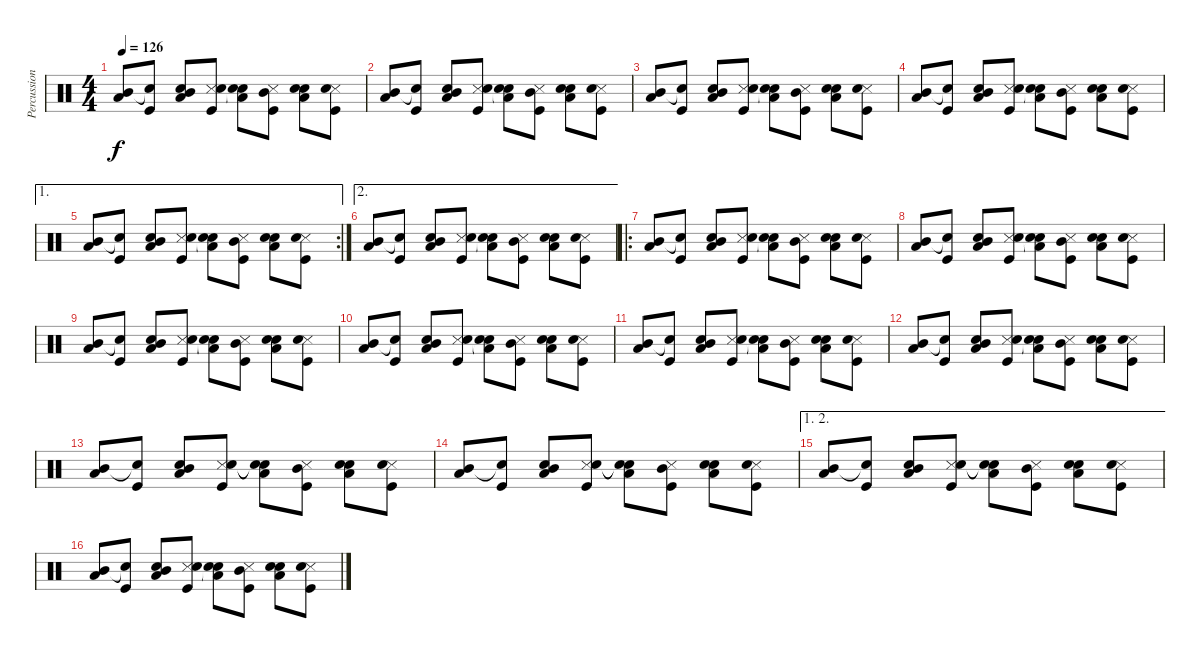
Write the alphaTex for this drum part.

\track ("Percussions" "Percussion") {instrument percussion}
\staff {score}
\articulation defaults
\ts (4 4)
\tempo 126
\clef neutral
\ks c
("Mid Tom (hit)" "Low Floor Tom (hit)").8{dy f} ("Snare (hit)"{t} "Kick (hit)").8 ("Snare (hit) 2" "Mid Tom (hit)" "Low Floor Tom (hit)").8 ("Snare (side stick) 3" "Electric Snare (hit)" "Kick (hit)").8 ("Snare (hit)"{t} "Snare (hit)"{t} "Low Floor Tom (hit)").8 ("Snare (side stick) 3" "Mid Tom (hit)" "Kick (hit)").8 ("Electric Snare (hit)" "Snare (hit) 2" "Low Floor Tom (hit)").8 ("Snare (side stick) 3" "Snare (hit) 2" "Kick (hit)").8 |
("Mid Tom (hit)" "Low Floor Tom (hit)").8 ("Snare (hit)"{t} "Kick (hit)").8 ("Snare (hit) 2" "Mid Tom (hit)" "Low Floor Tom (hit)").8 ("Snare (side stick) 3" "Electric Snare (hit)" "Kick (hit)").8 ("Snare (hit)"{t} "Snare (hit)"{t} "Low Floor Tom (hit)").8 ("Snare (side stick) 3" "Mid Tom (hit)" "Kick (hit)").8 ("Electric Snare (hit)" "Snare (hit) 2" "Low Floor Tom (hit)").8 ("Snare (side stick) 3" "Snare (hit) 2" "Kick (hit)").8 |
("Mid Tom (hit)" "Low Floor Tom (hit)").8 ("Snare (hit)"{t} "Kick (hit)").8 ("Snare (hit) 2" "Mid Tom (hit)" "Low Floor Tom (hit)").8 ("Snare (side stick) 3" "Electric Snare (hit)" "Kick (hit)").8 ("Snare (hit)"{t} "Snare (hit)"{t} "Low Floor Tom (hit)").8 ("Snare (side stick) 3" "Mid Tom (hit)" "Kick (hit)").8 ("Electric Snare (hit)" "Snare (hit) 2" "Low Floor Tom (hit)").8 ("Snare (side stick) 3" "Snare (hit) 2" "Kick (hit)").8 |
("Mid Tom (hit)" "Low Floor Tom (hit)").8 ("Snare (hit)"{t} "Kick (hit)").8 ("Snare (hit) 2" "Mid Tom (hit)" "Low Floor Tom (hit)").8 ("Snare (side stick) 3" "Electric Snare (hit)" "Kick (hit)").8 ("Snare (hit)"{t} "Snare (hit)"{t} "Low Floor Tom (hit)").8 ("Snare (side stick) 3" "Mid Tom (hit)" "Kick (hit)").8 ("Electric Snare (hit)" "Snare (hit) 2" "Low Floor Tom (hit)").8 ("Snare (side stick) 3" "Snare (hit) 2" "Kick (hit)").8 |
\ae 1
\rc 2
("Mid Tom (hit)" "Low Floor Tom (hit)").8 ("Snare (hit)"{t} "Kick (hit)").8 ("Snare (hit) 2" "Mid Tom (hit)" "Low Floor Tom (hit)").8 ("Snare (side stick) 3" "Electric Snare (hit)" "Kick (hit)").8 ("Snare (hit)"{t} "Snare (hit)"{t} "Low Floor Tom (hit)").8 ("Snare (side stick) 3" "Mid Tom (hit)" "Kick (hit)").8 ("Electric Snare (hit)" "Snare (hit) 2" "Low Floor Tom (hit)").8 ("Snare (side stick) 3" "Snare (hit) 2" "Kick (hit)").8 |
\ae 2
("Mid Tom (hit)" "Low Floor Tom (hit)").8 ("Snare (hit)"{t} "Kick (hit)").8 ("Snare (hit) 2" "Mid Tom (hit)" "Low Floor Tom (hit)").8 ("Snare (side stick) 3" "Electric Snare (hit)" "Kick (hit)").8 ("Snare (hit)"{t} "Snare (hit)"{t} "Low Floor Tom (hit)").8 ("Snare (side stick) 3" "Mid Tom (hit)" "Kick (hit)").8 ("Electric Snare (hit)" "Snare (hit) 2" "Low Floor Tom (hit)").8 ("Snare (side stick) 3" "Snare (hit) 2" "Kick (hit)").8 |
\ro
("Mid Tom (hit)" "Low Floor Tom (hit)").8 ("Snare (hit)"{t} "Kick (hit)").8 ("Snare (hit) 2" "Mid Tom (hit)" "Low Floor Tom (hit)").8 ("Snare (side stick) 3" "Electric Snare (hit)" "Kick (hit)").8 ("Snare (hit)"{t} "Snare (hit)"{t} "Low Floor Tom (hit)").8 ("Snare (side stick) 3" "Mid Tom (hit)" "Kick (hit)").8 ("Electric Snare (hit)" "Snare (hit) 2" "Low Floor Tom (hit)").8 ("Snare (side stick) 3" "Snare (hit) 2" "Kick (hit)").8 |
("Mid Tom (hit)" "Low Floor Tom (hit)").8 ("Snare (hit)"{t} "Kick (hit)").8 ("Snare (hit) 2" "Mid Tom (hit)" "Low Floor Tom (hit)").8 ("Snare (side stick) 3" "Electric Snare (hit)" "Kick (hit)").8 ("Snare (hit)"{t} "Snare (hit)"{t} "Low Floor Tom (hit)").8 ("Snare (side stick) 3" "Mid Tom (hit)" "Kick (hit)").8 ("Electric Snare (hit)" "Snare (hit) 2" "Low Floor Tom (hit)").8 ("Snare (side stick) 3" "Snare (hit) 2" "Kick (hit)").8 |
("Mid Tom (hit)" "Low Floor Tom (hit)").8 ("Snare (hit)"{t} "Kick (hit)").8 ("Snare (hit) 2" "Mid Tom (hit)" "Low Floor Tom (hit)").8 ("Snare (side stick) 3" "Electric Snare (hit)" "Kick (hit)").8 ("Snare (hit)"{t} "Snare (hit)"{t} "Low Floor Tom (hit)").8 ("Snare (side stick) 3" "Mid Tom (hit)" "Kick (hit)").8 ("Electric Snare (hit)" "Snare (hit) 2" "Low Floor Tom (hit)").8 ("Snare (side stick) 3" "Snare (hit) 2" "Kick (hit)").8 |
("Mid Tom (hit)" "Low Floor Tom (hit)").8 ("Snare (hit)"{t} "Kick (hit)").8 ("Snare (hit) 2" "Mid Tom (hit)" "Low Floor Tom (hit)").8 ("Snare (side stick) 3" "Electric Snare (hit)" "Kick (hit)").8 ("Snare (hit)"{t} "Snare (hit)"{t} "Low Floor Tom (hit)").8 ("Snare (side stick) 3" "Mid Tom (hit)" "Kick (hit)").8 ("Electric Snare (hit)" "Snare (hit) 2" "Low Floor Tom (hit)").8 ("Snare (side stick) 3" "Snare (hit) 2" "Kick (hit)").8 |
("Mid Tom (hit)" "Low Floor Tom (hit)").8 ("Snare (hit)"{t} "Kick (hit)").8 ("Snare (hit) 2" "Mid Tom (hit)" "Low Floor Tom (hit)").8 ("Snare (side stick) 3" "Electric Snare (hit)" "Kick (hit)").8 ("Snare (hit)"{t} "Snare (hit)"{t} "Low Floor Tom (hit)").8 ("Snare (side stick) 3" "Mid Tom (hit)" "Kick (hit)").8 ("Electric Snare (hit)" "Snare (hit) 2" "Low Floor Tom (hit)").8 ("Snare (side stick) 3" "Snare (hit) 2" "Kick (hit)").8 |
("Mid Tom (hit)" "Low Floor Tom (hit)").8 ("Snare (hit)"{t} "Kick (hit)").8 ("Snare (hit) 2" "Mid Tom (hit)" "Low Floor Tom (hit)").8 ("Snare (side stick) 3" "Electric Snare (hit)" "Kick (hit)").8 ("Snare (hit)"{t} "Snare (hit)"{t} "Low Floor Tom (hit)").8 ("Snare (side stick) 3" "Mid Tom (hit)" "Kick (hit)").8 ("Electric Snare (hit)" "Snare (hit) 2" "Low Floor Tom (hit)").8 ("Snare (side stick) 3" "Snare (hit) 2" "Kick (hit)").8 |
("Mid Tom (hit)" "Low Floor Tom (hit)").8 ("Snare (hit)"{t} "Kick (hit)").8 ("Snare (hit) 2" "Mid Tom (hit)" "Low Floor Tom (hit)").8 ("Snare (side stick) 3" "Electric Snare (hit)" "Kick (hit)").8 ("Snare (hit)"{t} "Snare (hit)"{t} "Low Floor Tom (hit)").8 ("Snare (side stick) 3" "Mid Tom (hit)" "Kick (hit)").8 ("Electric Snare (hit)" "Snare (hit) 2" "Low Floor Tom (hit)").8 ("Snare (side stick) 3" "Snare (hit) 2" "Kick (hit)").8 |
("Mid Tom (hit)" "Low Floor Tom (hit)").8 ("Snare (hit)"{t} "Kick (hit)").8 ("Snare (hit) 2" "Mid Tom (hit)" "Low Floor Tom (hit)").8 ("Snare (side stick) 3" "Electric Snare (hit)" "Kick (hit)").8 ("Snare (hit)"{t} "Snare (hit)"{t} "Low Floor Tom (hit)").8 ("Snare (side stick) 3" "Mid Tom (hit)" "Kick (hit)").8 ("Electric Snare (hit)" "Snare (hit) 2" "Low Floor Tom (hit)").8 ("Snare (side stick) 3" "Snare (hit) 2" "Kick (hit)").8 |
\ae (1 2)
("Mid Tom (hit)" "Low Floor Tom (hit)").8 ("Snare (hit)"{t} "Kick (hit)").8 ("Snare (hit) 2" "Mid Tom (hit)" "Low Floor Tom (hit)").8 ("Snare (side stick) 3" "Electric Snare (hit)" "Kick (hit)").8 ("Snare (hit)"{t} "Snare (hit)"{t} "Low Floor Tom (hit)").8 ("Snare (side stick) 3" "Mid Tom (hit)" "Kick (hit)").8 ("Electric Snare (hit)" "Snare (hit) 2" "Low Floor Tom (hit)").8 ("Snare (side stick) 3" "Snare (hit) 2" "Kick (hit)").8 |
("Mid Tom (hit)" "Low Floor Tom (hit)").8 ("Snare (hit)"{t} "Kick (hit)").8 ("Snare (hit) 2" "Mid Tom (hit)" "Low Floor Tom (hit)").8 ("Snare (side stick) 3" "Electric Snare (hit)" "Kick (hit)").8 ("Snare (hit)"{t} "Snare (hit)"{t} "Low Floor Tom (hit)").8 ("Snare (side stick) 3" "Mid Tom (hit)" "Kick (hit)").8 ("Electric Snare (hit)" "Snare (hit) 2" "Low Floor Tom (hit)").8 ("Snare (side stick) 3" "Snare (hit) 2" "Kick (hit)").8
